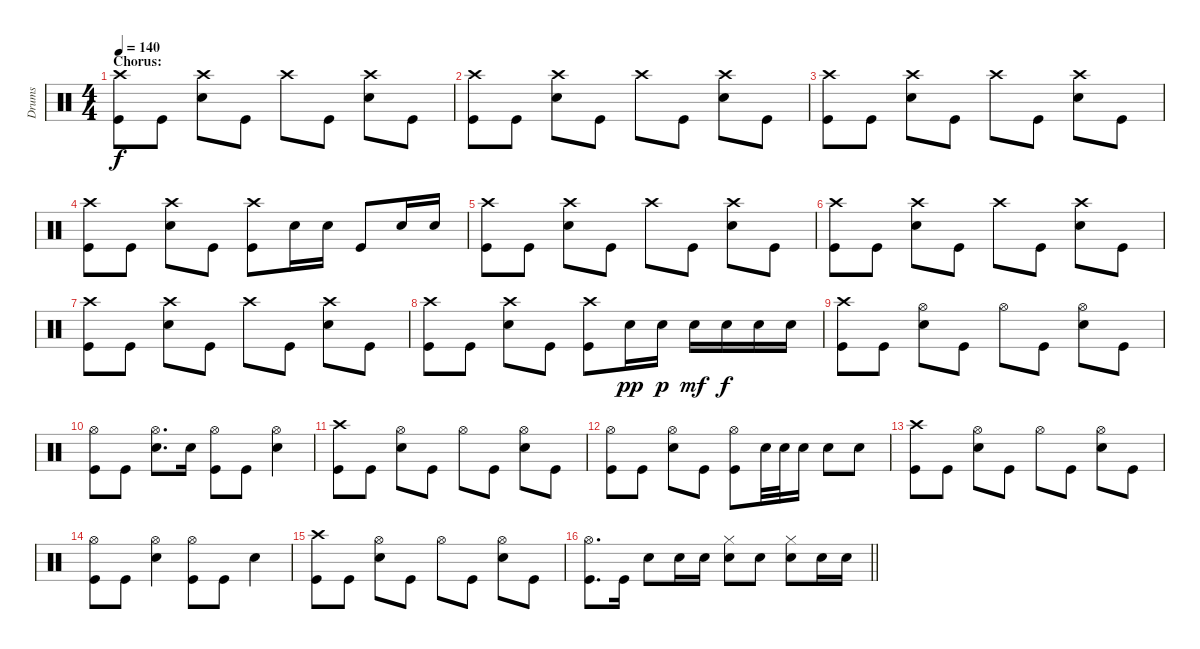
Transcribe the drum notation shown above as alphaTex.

\track ("Drums" "Drums") {instrument percussion}
\staff {score}
\articulation defaults
\ts (4 4)
\section ("" "Chorus:")
\tempo 140
\clef neutral
\ks c
("Kick (hit)" "Crash high (hit)").8{dy f} "Kick (hit)".8 ("Crash high (hit)" "Snare (hit) 2").8 "Kick (hit)".8 "Crash high (hit)".8 "Kick (hit)".8 ("Snare (hit) 2" "Crash high (hit)").8 "Kick (hit)".8 |
("Crash high (hit)" "Kick (hit)").8 "Kick (hit)".8 ("Snare (hit) 2" "Crash high (hit)").8 "Kick (hit)".8 "Crash high (hit)".8 "Kick (hit)".8 ("Snare (hit) 2" "Crash high (hit)").8 "Kick (hit)".8 |
("Crash high (hit)" "Kick (hit)").8 "Kick (hit)".8 ("Crash high (hit)" "Snare (hit) 2").8 "Kick (hit)".8 "Crash high (hit)".8 "Kick (hit)".8 ("Crash high (hit)" "Snare (hit) 2").8 "Kick (hit)".8 |
("Crash high (hit)" "Kick (hit)").8 "Kick (hit)".8 ("Crash high (hit)" "Snare (hit) 2").8 "Kick (hit)".8 ("Kick (hit)" "Crash high (hit)").8 "Snare (hit) 2".16 "Snare (hit) 2".16 "Kick (hit)".8 "Snare (hit) 2".16 "Snare (hit) 2".16 |
("Kick (hit)" "Crash high (hit)").8 "Kick (hit)".8 ("Crash high (hit)" "Snare (hit) 2").8 "Kick (hit)".8 "Crash high (hit)".8 "Kick (hit)".8 ("Snare (hit) 2" "Crash high (hit)").8 "Kick (hit)".8 |
("Crash high (hit)" "Kick (hit)").8 "Kick (hit)".8 ("Snare (hit) 2" "Crash high (hit)").8 "Kick (hit)".8 "Crash high (hit)".8 "Kick (hit)".8 ("Snare (hit) 2" "Crash high (hit)").8 "Kick (hit)".8 |
("Crash high (hit)" "Kick (hit)").8 "Kick (hit)".8 ("Crash high (hit)" "Snare (hit) 2").8 "Kick (hit)".8 "Crash high (hit)".8 "Kick (hit)".8 ("Crash high (hit)" "Snare (hit) 2").8 "Kick (hit)".8 |
("Kick (hit)" "Crash high (hit)").8 "Kick (hit)".8 ("Crash high (hit)" "Snare (hit) 2").8 "Kick (hit)".8 ("Crash high (hit)" "Kick (hit)").8 "Snare (hit) 2".16{dy pp} "Snare (hit) 2".16{dy p} "Snare (hit) 2".16{dy mf} "Snare (hit) 2".16{dy f} "Snare (hit) 2".16 "Snare (hit) 2".16 |
("Kick (hit)" "Crash high (hit)").8 "Kick (hit)".8 ("Snare (hit) 2" "Hi-Hat (open)").8 "Kick (hit)".8 "Hi-Hat (open)".8 "Kick (hit)".8 ("Snare (hit) 2" "Hi-Hat (open)").8 "Kick (hit)".8 |
("Kick (hit)" "Hi-Hat (open)").8 "Kick (hit)".8 ("Snare (hit) 2" "Hi-Hat (open)").8{d} "Snare (hit) 2".16 ("Kick (hit)" "Hi-Hat (open)").8 "Kick (hit)".8 ("Snare (hit) 2" "Hi-Hat (open)").4 |
("Kick (hit)" "Crash high (hit)").8 "Kick (hit)".8 ("Snare (hit) 2" "Hi-Hat (open)").8 "Kick (hit)".8 "Hi-Hat (open)".8 "Kick (hit)".8 ("Snare (hit) 2" "Hi-Hat (open)").8 "Kick (hit)".8 |
("Kick (hit)" "Hi-Hat (open)").8 "Kick (hit)".8 ("Snare (hit) 2" "Hi-Hat (open)").8 "Kick (hit)".8 ("Kick (hit)" "Hi-Hat (open)").8 "Snare (hit) 2".32 "Snare (hit) 2".32 "Snare (hit) 2".16 "Snare (hit) 2".8 "Snare (hit) 2".8 |
("Kick (hit)" "Crash high (hit)").8 "Kick (hit)".8 ("Snare (hit) 2" "Hi-Hat (open)").8 "Kick (hit)".8 "Hi-Hat (open)".8 "Kick (hit)".8 ("Snare (hit) 2" "Hi-Hat (open)").8 "Kick (hit)".8 |
("Kick (hit)" "Hi-Hat (open)").8 "Kick (hit)".8 ("Snare (hit) 2" "Hi-Hat (open)").4 ("Kick (hit)" "Hi-Hat (open)").8 "Kick (hit)".8 "Snare (hit) 2".4 |
("Kick (hit)" "Crash high (hit)").8 "Kick (hit)".8 ("Snare (hit) 2" "Hi-Hat (open)").8 "Kick (hit)".8 "Hi-Hat (open)".8 "Kick (hit)".8 ("Snare (hit) 2" "Hi-Hat (open)").8 "Kick (hit)".8 |
\barLineRight lightlight
("Kick (hit)" "Hi-Hat (open)").8{d} "Kick (hit)".16 "Snare (hit) 2".8 "Snare (hit) 2".16 "Snare (hit) 2".16 ("Snare (hit) 2" "Hi-Hat (closed)").8 "Snare (hit) 2".8 ("Snare (hit) 2" "Hi-Hat (closed)").8 "Snare (hit) 2".16 "Snare (hit) 2".16
